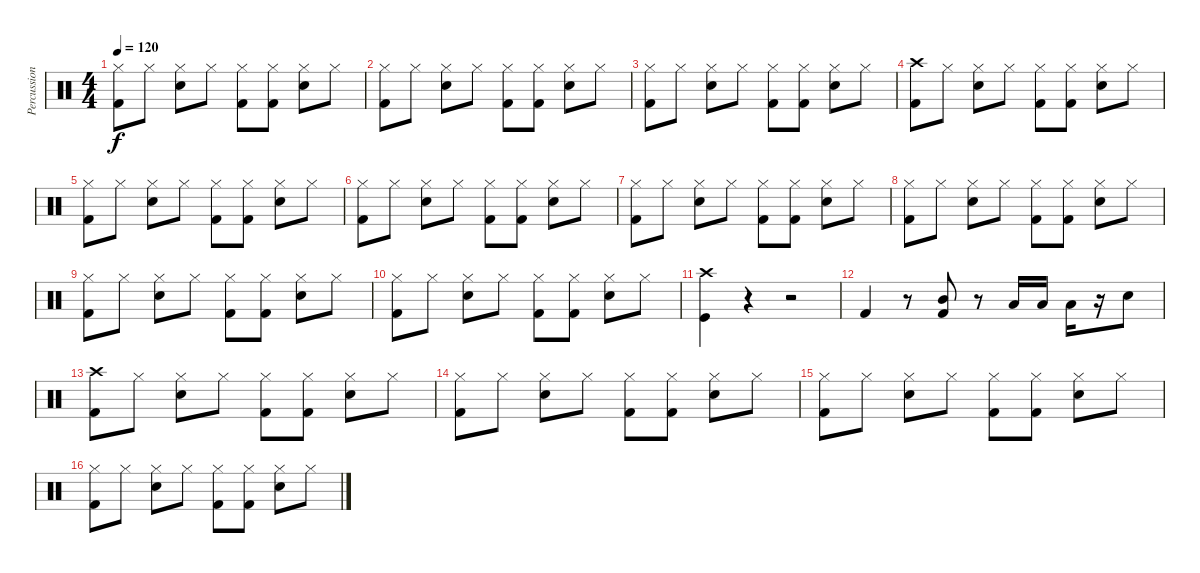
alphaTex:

\track ("Percussion" "Percussion") {instrument percussion}
\staff {score}
\articulation defaults
\ts (4 4)
\tempo 120
\clef neutral
\ks c
("Hi-Hat (closed)" "Kick (hit) 2").8{dy f} "Hi-Hat (closed)".8 ("Hi-Hat (closed)" "Electric Snare (hit)").8 "Hi-Hat (closed)".8 ("Hi-Hat (closed)" "Kick (hit) 2").8 ("Hi-Hat (closed)" "Kick (hit) 2").8 ("Hi-Hat (closed)" "Electric Snare (hit)").8 "Hi-Hat (closed)".8 |
("Hi-Hat (closed)" "Kick (hit) 2").8 "Hi-Hat (closed)".8 ("Hi-Hat (closed)" "Electric Snare (hit)").8 "Hi-Hat (closed)".8 ("Hi-Hat (closed)" "Kick (hit) 2").8 ("Hi-Hat (closed)" "Kick (hit) 2").8 ("Hi-Hat (closed)" "Electric Snare (hit)").8 "Hi-Hat (closed)".8 |
("Hi-Hat (closed)" "Kick (hit) 2").8 "Hi-Hat (closed)".8 ("Hi-Hat (closed)" "Electric Snare (hit)").8 "Hi-Hat (closed)".8 ("Hi-Hat (closed)" "Kick (hit) 2").8 ("Hi-Hat (closed)" "Kick (hit) 2").8 ("Hi-Hat (closed)" "Electric Snare (hit)").8 "Hi-Hat (closed)".8 |
("Crash high (hit)" "Kick (hit) 2").8 "Hi-Hat (closed)".8 ("Hi-Hat (closed)" "Electric Snare (hit)").8 "Hi-Hat (closed)".8 ("Hi-Hat (closed)" "Kick (hit) 2").8 ("Hi-Hat (closed)" "Kick (hit) 2").8 ("Hi-Hat (closed)" "Electric Snare (hit)").8 "Hi-Hat (closed)".8 |
("Hi-Hat (closed)" "Kick (hit) 2").8 "Hi-Hat (closed)".8 ("Hi-Hat (closed)" "Electric Snare (hit)").8 "Hi-Hat (closed)".8 ("Hi-Hat (closed)" "Kick (hit) 2").8 ("Hi-Hat (closed)" "Kick (hit) 2").8 ("Hi-Hat (closed)" "Electric Snare (hit)").8 "Hi-Hat (closed)".8 |
("Hi-Hat (closed)" "Kick (hit) 2").8 "Hi-Hat (closed)".8 ("Hi-Hat (closed)" "Electric Snare (hit)").8 "Hi-Hat (closed)".8 ("Hi-Hat (closed)" "Kick (hit) 2").8 ("Hi-Hat (closed)" "Kick (hit) 2").8 ("Hi-Hat (closed)" "Electric Snare (hit)").8 "Hi-Hat (closed)".8 |
("Hi-Hat (closed)" "Kick (hit) 2").8 "Hi-Hat (closed)".8 ("Hi-Hat (closed)" "Electric Snare (hit)").8 "Hi-Hat (closed)".8 ("Hi-Hat (closed)" "Kick (hit) 2").8 ("Hi-Hat (closed)" "Kick (hit) 2").8 ("Hi-Hat (closed)" "Electric Snare (hit)").8 "Hi-Hat (closed)".8 |
("Hi-Hat (closed)" "Kick (hit) 2").8 "Hi-Hat (closed)".8 ("Hi-Hat (closed)" "Electric Snare (hit)").8 "Hi-Hat (closed)".8 ("Hi-Hat (closed)" "Kick (hit) 2").8 ("Hi-Hat (closed)" "Kick (hit) 2").8 ("Hi-Hat (closed)" "Electric Snare (hit)").8 "Hi-Hat (closed)".8 |
("Hi-Hat (closed)" "Kick (hit) 2").8 "Hi-Hat (closed)".8 ("Hi-Hat (closed)" "Electric Snare (hit)").8 "Hi-Hat (closed)".8 ("Hi-Hat (closed)" "Kick (hit) 2").8 ("Hi-Hat (closed)" "Kick (hit) 2").8 ("Hi-Hat (closed)" "Electric Snare (hit)").8 "Hi-Hat (closed)".8 |
("Hi-Hat (closed)" "Kick (hit) 2").8 "Hi-Hat (closed)".8 ("Hi-Hat (closed)" "Electric Snare (hit)").8 "Hi-Hat (closed)".8 ("Hi-Hat (closed)" "Kick (hit) 2").8 ("Hi-Hat (closed)" "Kick (hit) 2").8 ("Hi-Hat (closed)" "Electric Snare (hit)").8 "Hi-Hat (closed)".8 |
("Crash high (hit)" "Kick (hit)").4 r.4 r.2 |
"Kick (hit) 2".4 r.8 ("Mid Tom (hit)" "Kick (hit) 2").8 r.8 "Low Tom (hit)".16 "Low Tom (hit)".16 "Low Tom (hit)".16 r.16 "Electric Snare (hit)".8 |
("Crash high (hit)" "Kick (hit) 2").8 "Hi-Hat (closed)".8 ("Hi-Hat (closed)" "Electric Snare (hit)").8 "Hi-Hat (closed)".8 ("Hi-Hat (closed)" "Kick (hit) 2").8 ("Hi-Hat (closed)" "Kick (hit) 2").8 ("Hi-Hat (closed)" "Electric Snare (hit)").8 "Hi-Hat (closed)".8 |
("Hi-Hat (closed)" "Kick (hit) 2").8 "Hi-Hat (closed)".8 ("Hi-Hat (closed)" "Electric Snare (hit)").8 "Hi-Hat (closed)".8 ("Hi-Hat (closed)" "Kick (hit) 2").8 ("Hi-Hat (closed)" "Kick (hit) 2").8 ("Hi-Hat (closed)" "Electric Snare (hit)").8 "Hi-Hat (closed)".8 |
("Hi-Hat (closed)" "Kick (hit) 2").8 "Hi-Hat (closed)".8 ("Hi-Hat (closed)" "Electric Snare (hit)").8 "Hi-Hat (closed)".8 ("Hi-Hat (closed)" "Kick (hit) 2").8 ("Hi-Hat (closed)" "Kick (hit) 2").8 ("Hi-Hat (closed)" "Electric Snare (hit)").8 "Hi-Hat (closed)".8 |
("Hi-Hat (closed)" "Kick (hit) 2").8 "Hi-Hat (closed)".8 ("Hi-Hat (closed)" "Electric Snare (hit)").8 "Hi-Hat (closed)".8 ("Hi-Hat (closed)" "Kick (hit) 2").8 ("Hi-Hat (closed)" "Kick (hit) 2").8 ("Hi-Hat (closed)" "Electric Snare (hit)").8 "Hi-Hat (closed)".8
